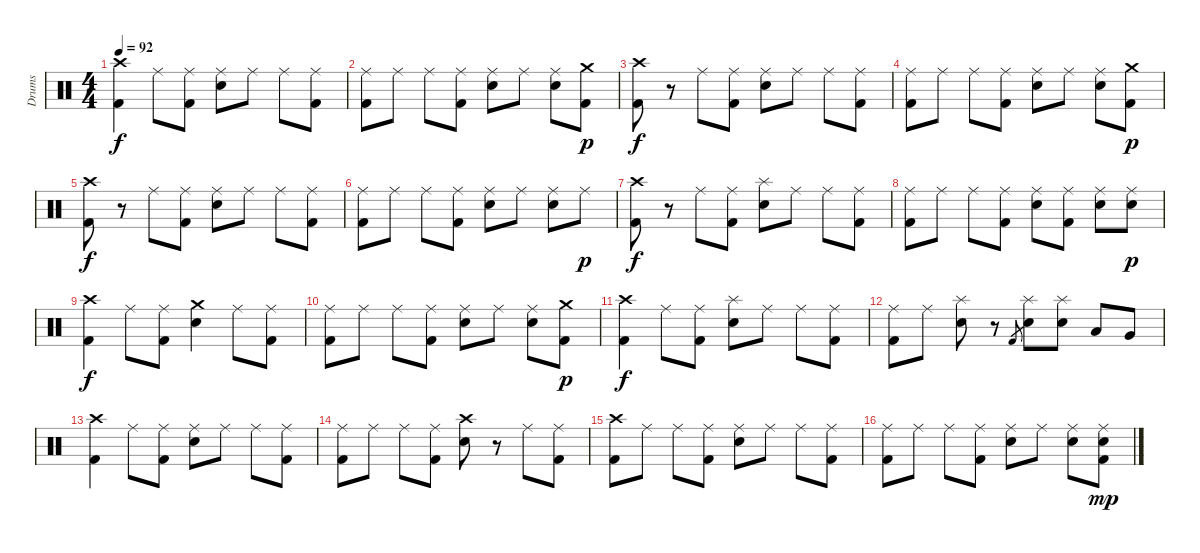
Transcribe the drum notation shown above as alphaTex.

\track ("Drums" "Drums") {instrument percussion}
\staff {score}
\articulation defaults
\ts (4 4)
\tempo 92
\clef neutral
\ks c
("Crash high (hit)" "Kick (hit) 2").4{dy f} "Ride (middle)".8 ("Ride (middle)" "Kick (hit) 2").8 ("Ride (middle)" "Snare (hit) 2").8 "Ride (middle)".8 "Ride (middle)".8 ("Ride (middle)" "Kick (hit) 2").8 |
("Ride (middle)" "Kick (hit) 2").8 "Ride (middle)".8 "Ride (middle)".8 ("Ride (middle)" "Kick (hit) 2").8 ("Ride (middle)" "Snare (hit) 2").8 "Ride (middle)".8 ("Ride (middle)" "Snare (hit) 2").8 ("Crash medium (hit)" "Kick (hit) 2").8{dy p} |
("Crash high (hit)" "Kick (hit) 2").8{dy f} r.8 "Ride (middle)".8 ("Ride (middle)" "Kick (hit) 2").8 ("Ride (middle)" "Snare (hit) 2").8 "Ride (middle)".8 "Ride (middle)".8 ("Ride (middle)" "Kick (hit) 2").8 |
("Ride (middle)" "Kick (hit) 2").8 "Ride (middle)".8 "Ride (middle)".8 ("Ride (middle)" "Kick (hit) 2").8 ("Ride (middle)" "Snare (hit) 2").8 "Ride (middle)".8 ("Ride (middle)" "Snare (hit) 2").8 ("Crash medium (hit)" "Kick (hit) 2").8{dy p} |
("Crash high (hit)" "Kick (hit) 2").8{dy f} r.8 "Ride (middle)".8 ("Ride (middle)" "Kick (hit) 2").8 ("Ride (middle)" "Snare (hit) 2").8 "Ride (middle)".8 "Ride (middle)".8 ("Ride (middle)" "Kick (hit) 2").8 |
("Ride (middle)" "Kick (hit) 2").8 "Ride (middle)".8 "Ride (middle)".8 ("Ride (middle)" "Kick (hit) 2").8 ("Ride (middle)" "Snare (hit) 2").8 "Ride (middle)".8 ("Ride (middle)" "Snare (hit) 2").8 "Ride (middle)".8{dy p} |
("Crash high (hit)" "Kick (hit) 2").8{dy f} r.8 "Ride (middle)".8 ("Ride (middle)" "Kick (hit) 2").8 ("Splash (hit)" "Snare (hit) 2").8 "Ride (middle)".8 "Ride (middle)".8 ("Ride (middle)" "Kick (hit) 2").8 |
("Ride (middle)" "Kick (hit) 2").8 "Ride (middle)".8 "Ride (middle)".8 ("Ride (middle)" "Kick (hit) 2").8 ("Ride (middle)" "Snare (hit) 2").8 ("Ride (middle)" "Kick (hit) 2").8 ("Ride (middle)" "Snare (hit) 2").8 ("Ride (middle)" "Snare (hit) 2").8{dy p} |
("Crash high (hit)" "Kick (hit) 2").4{dy f} "Ride (middle)".8 ("Ride (middle)" "Kick (hit) 2").8 ("Crash medium (hit)" "Snare (hit) 2").4 "Ride (middle)".8 ("Ride (middle)" "Kick (hit) 2").8 |
("Ride (middle)" "Kick (hit) 2").8 "Ride (middle)".8 "Ride (middle)".8 ("Ride (middle)" "Kick (hit) 2").8 ("Ride (middle)" "Snare (hit) 2").8 "Ride (middle)".8 ("Ride (middle)" "Snare (hit) 2").8 ("Crash medium (hit)" "Kick (hit) 2").8{dy p} |
("Crash high (hit)" "Kick (hit) 2").4{dy f} "Ride (middle)".8 ("Ride (middle)" "Kick (hit) 2").8 ("Splash (hit)" "Snare (hit) 2").8 "Ride (middle)".8 "Ride (middle)".8 ("Ride (middle)" "Kick (hit) 2").8 |
("Ride (middle)" "Kick (hit) 2").8 "Ride (middle)".8 ("Splash (hit)" "Snare (hit) 2").8 r.8 "Kick (hit) 2".8{gr} ("Splash (hit)" "Snare (hit) 2").8 ("Splash (hit)" "Snare (hit) 2").8 "Low Tom (hit)".8 "Very Low Tom (hit)".8 |
("Crash high (hit)" "Kick (hit) 2").4 "Ride (middle)".8 ("Ride (middle)" "Kick (hit) 2").8 ("Ride (middle)" "Snare (hit) 2").8 "Ride (middle)".8 "Ride (middle)".8 ("Ride (middle)" "Kick (hit) 2").8 |
("Ride (middle)" "Kick (hit) 2").8 "Ride (middle)".8 "Ride (middle)".8 ("Ride (middle)" "Kick (hit) 2").8 ("Crash high (hit)" "Snare (hit) 2").8 r.8 "Ride (middle)".8 ("Ride (middle)" "Kick (hit) 2").8 |
("Crash high (hit)" "Kick (hit) 2").8 "Ride (middle)".8 "Ride (middle)".8 ("Ride (middle)" "Kick (hit) 2").8 ("Ride (middle)" "Snare (hit) 2").8 "Ride (middle)".8 "Ride (middle)".8 ("Ride (middle)" "Kick (hit) 2").8 |
("Ride (middle)" "Kick (hit) 2").8 "Ride (middle)".8 "Ride (middle)".8 ("Ride (middle)" "Kick (hit) 2").8 ("Ride (middle)" "Snare (hit) 2").8 "Ride (middle)".8 ("Ride (middle)" "Snare (hit) 2").8 ("Ride (middle)" "Snare (hit) 2" "Kick (hit) 2").8{dy mp}
